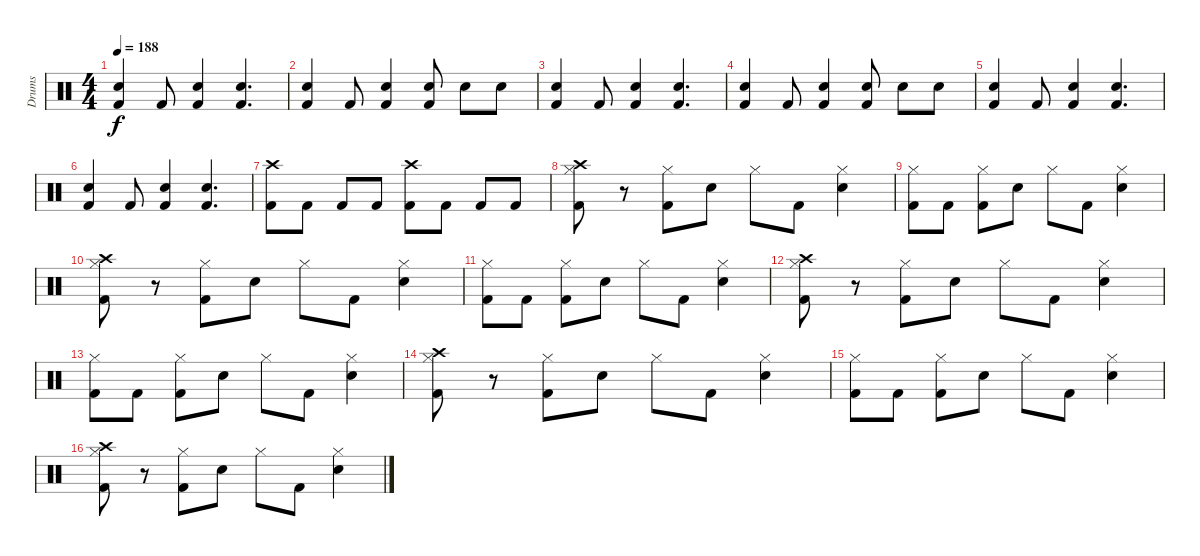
\track ("Drums" "Drums") {instrument percussion}
\staff {score}
\articulation defaults
\ts (4 4)
\tempo 188
\clef neutral
\ks c
("Snare (hit) 2" "Kick (hit) 2").4{dy f} "Kick (hit) 2".8 ("Snare (hit) 2" "Kick (hit) 2").4 ("Snare (hit) 2" "Kick (hit) 2").4{d} |
("Snare (hit) 2" "Kick (hit) 2").4 "Kick (hit) 2".8 ("Snare (hit) 2" "Kick (hit) 2").4 ("Snare (hit) 2" "Kick (hit) 2").8 "Snare (hit) 2".8 "Snare (hit) 2".8 |
("Snare (hit) 2" "Kick (hit) 2").4 "Kick (hit) 2".8 ("Snare (hit) 2" "Kick (hit) 2").4 ("Snare (hit) 2" "Kick (hit) 2").4{d} |
("Snare (hit) 2" "Kick (hit) 2").4 "Kick (hit) 2".8 ("Snare (hit) 2" "Kick (hit) 2").4 ("Snare (hit) 2" "Kick (hit) 2").8 "Snare (hit) 2".8 "Snare (hit) 2".8 |
("Snare (hit) 2" "Kick (hit) 2").4 "Kick (hit) 2".8 ("Snare (hit) 2" "Kick (hit) 2").4 ("Snare (hit) 2" "Kick (hit) 2").4{d} |
("Snare (hit) 2" "Kick (hit) 2").4 "Kick (hit) 2".8 ("Snare (hit) 2" "Kick (hit) 2").4 ("Snare (hit) 2" "Kick (hit) 2").4{d} |
("Crash high (hit)" "Kick (hit) 2").8 "Kick (hit) 2".8 "Kick (hit) 2".8 "Kick (hit) 2".8 ("Crash high (hit)" "Kick (hit) 2").8 "Kick (hit) 2".8 "Kick (hit) 2".8 "Kick (hit) 2".8 |
("Crash high (hit)" "Hi-Hat (closed)" "Kick (hit) 2").8 r.8 ("Hi-Hat (closed)" "Kick (hit) 2").8 "Snare (hit) 2".8 "Hi-Hat (closed)".8 "Kick (hit) 2".8 ("Hi-Hat (closed)" "Snare (hit) 2").4 |
("Hi-Hat (closed)" "Kick (hit) 2").8 "Kick (hit) 2".8 ("Hi-Hat (closed)" "Kick (hit) 2").8 "Snare (hit) 2".8 "Hi-Hat (closed)".8 "Kick (hit) 2".8 ("Hi-Hat (closed)" "Snare (hit) 2").4 |
("Crash high (hit)" "Hi-Hat (closed)" "Kick (hit) 2").8 r.8 ("Hi-Hat (closed)" "Kick (hit) 2").8 "Snare (hit) 2".8 "Hi-Hat (closed)".8 "Kick (hit) 2".8 ("Hi-Hat (closed)" "Snare (hit) 2").4 |
("Hi-Hat (closed)" "Kick (hit) 2").8 "Kick (hit) 2".8 ("Hi-Hat (closed)" "Kick (hit) 2").8 "Snare (hit) 2".8 "Hi-Hat (closed)".8 "Kick (hit) 2".8 ("Hi-Hat (closed)" "Snare (hit) 2").4 |
("Crash high (hit)" "Hi-Hat (closed)" "Kick (hit) 2").8 r.8 ("Hi-Hat (closed)" "Kick (hit) 2").8 "Snare (hit) 2".8 "Hi-Hat (closed)".8 "Kick (hit) 2".8 ("Hi-Hat (closed)" "Snare (hit) 2").4 |
("Hi-Hat (closed)" "Kick (hit) 2").8 "Kick (hit) 2".8 ("Hi-Hat (closed)" "Kick (hit) 2").8 "Snare (hit) 2".8 "Hi-Hat (closed)".8 "Kick (hit) 2".8 ("Hi-Hat (closed)" "Snare (hit) 2").4 |
("Crash high (hit)" "Hi-Hat (closed)" "Kick (hit) 2").8 r.8 ("Hi-Hat (closed)" "Kick (hit) 2").8 "Snare (hit) 2".8 "Hi-Hat (closed)".8 "Kick (hit) 2".8 ("Hi-Hat (closed)" "Snare (hit) 2").4 |
("Hi-Hat (closed)" "Kick (hit) 2").8 "Kick (hit) 2".8 ("Hi-Hat (closed)" "Kick (hit) 2").8 "Snare (hit) 2".8 "Hi-Hat (closed)".8 "Kick (hit) 2".8 ("Hi-Hat (closed)" "Snare (hit) 2").4 |
("Crash high (hit)" "Hi-Hat (closed)" "Kick (hit) 2").8 r.8 ("Hi-Hat (closed)" "Kick (hit) 2").8 "Snare (hit) 2".8 "Hi-Hat (closed)".8 "Kick (hit) 2".8 ("Hi-Hat (closed)" "Snare (hit) 2").4
